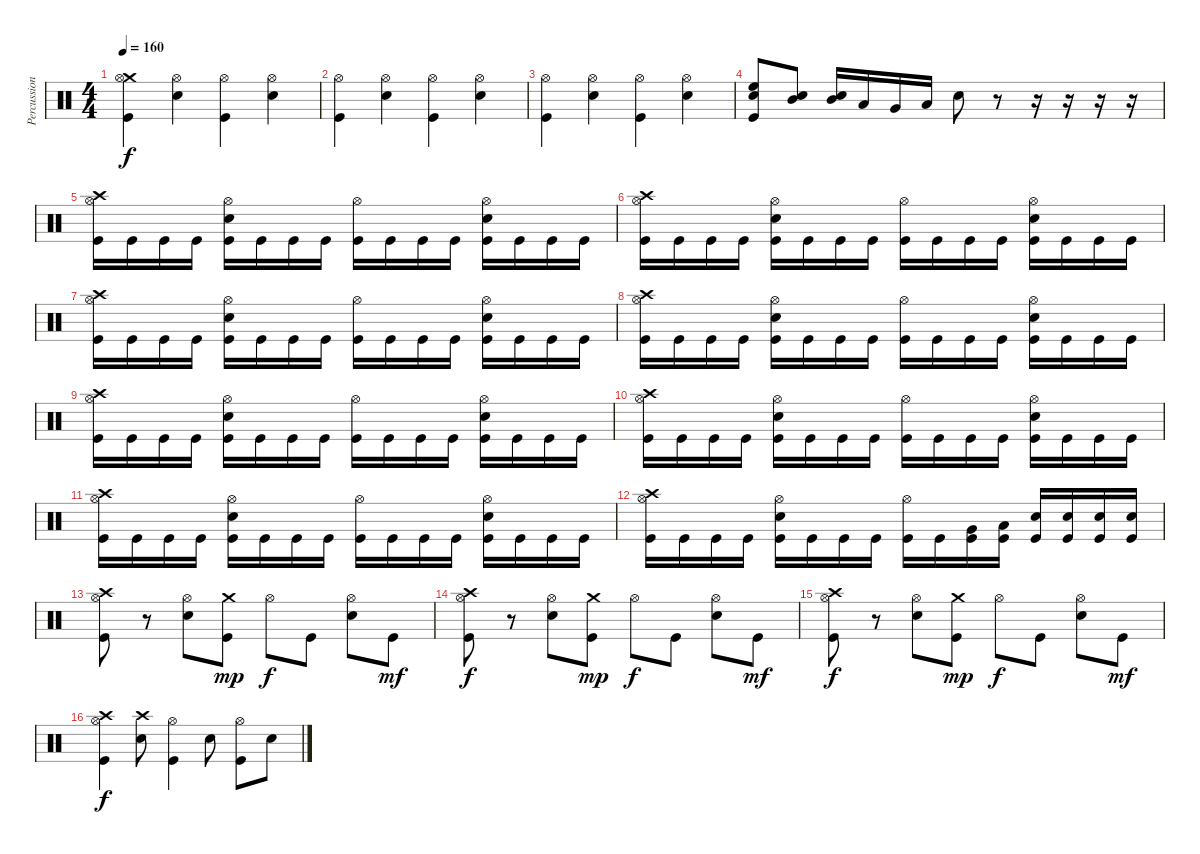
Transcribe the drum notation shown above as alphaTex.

\track ("Percussion" "Percussion") {instrument percussion}
\staff {score}
\articulation defaults
\ts (4 4)
\tempo 160
\clef neutral
\ks c
("Crash medium (hit)" "Hi-Hat (open)" "Kick (hit)").4{dy f} ("Hi-Hat (open)" "Electric Snare (hit)").4 ("Hi-Hat (open)" "Kick (hit)").4 ("Hi-Hat (open)" "Electric Snare (hit)").4 |
("Hi-Hat (open)" "Kick (hit)").4 ("Hi-Hat (open)" "Electric Snare (hit)").4 ("Hi-Hat (open)" "Kick (hit)").4 ("Hi-Hat (open)" "Electric Snare (hit)").4 |
("Hi-Hat (open)" "Kick (hit)").4 ("Hi-Hat (open)" "Electric Snare (hit)").4 ("Hi-Hat (open)" "Kick (hit)").4 ("Hi-Hat (open)" "Electric Snare (hit)").4 |
("Electric Snare (hit)" "High Floor Tom (hit)" "Kick (hit)").8 ("Electric Snare (hit)" "Mid Tom (hit)").8 ("Electric Snare (hit)" "Mid Tom (hit)").16 "Low Tom (hit)".16 "Very Low Tom (hit)".16 "Low Floor Tom (hit)".16 "Electric Snare (hit)".8 r.8 r.16 r.16 r.16 r.16 |
("Crash high (hit)" "Hi-Hat (open)" "Kick (hit)").16 "Kick (hit)".16 "Kick (hit)".16 "Kick (hit)".16 ("Electric Snare (hit)" "Hi-Hat (open)" "Kick (hit)").16 "Kick (hit)".16 "Kick (hit)".16 "Kick (hit)".16 ("Hi-Hat (open)" "Kick (hit)").16 "Kick (hit)".16 "Kick (hit)".16 "Kick (hit)".16 ("Electric Snare (hit)" "Hi-Hat (open)" "Kick (hit)").16 "Kick (hit)".16 "Kick (hit)".16 "Kick (hit)".16 |
("Crash high (hit)" "Hi-Hat (open)" "Kick (hit)").16 "Kick (hit)".16 "Kick (hit)".16 "Kick (hit)".16 ("Electric Snare (hit)" "Hi-Hat (open)" "Kick (hit)").16 "Kick (hit)".16 "Kick (hit)".16 "Kick (hit)".16 ("Hi-Hat (open)" "Kick (hit)").16 "Kick (hit)".16 "Kick (hit)".16 "Kick (hit)".16 ("Electric Snare (hit)" "Hi-Hat (open)" "Kick (hit)").16 "Kick (hit)".16 "Kick (hit)".16 "Kick (hit)".16 |
("Crash high (hit)" "Hi-Hat (open)" "Kick (hit)").16 "Kick (hit)".16 "Kick (hit)".16 "Kick (hit)".16 ("Electric Snare (hit)" "Hi-Hat (open)" "Kick (hit)").16 "Kick (hit)".16 "Kick (hit)".16 "Kick (hit)".16 ("Hi-Hat (open)" "Kick (hit)").16 "Kick (hit)".16 "Kick (hit)".16 "Kick (hit)".16 ("Electric Snare (hit)" "Hi-Hat (open)" "Kick (hit)").16 "Kick (hit)".16 "Kick (hit)".16 "Kick (hit)".16 |
("Crash high (hit)" "Hi-Hat (open)" "Kick (hit)").16 "Kick (hit)".16 "Kick (hit)".16 "Kick (hit)".16 ("Electric Snare (hit)" "Hi-Hat (open)" "Kick (hit)").16 "Kick (hit)".16 "Kick (hit)".16 "Kick (hit)".16 ("Hi-Hat (open)" "Kick (hit)").16 "Kick (hit)".16 "Kick (hit)".16 "Kick (hit)".16 ("Electric Snare (hit)" "Hi-Hat (open)" "Kick (hit)").16 "Kick (hit)".16 "Kick (hit)".16 "Kick (hit)".16 |
("Crash high (hit)" "Hi-Hat (open)" "Kick (hit)").16 "Kick (hit)".16 "Kick (hit)".16 "Kick (hit)".16 ("Electric Snare (hit)" "Hi-Hat (open)" "Kick (hit)").16 "Kick (hit)".16 "Kick (hit)".16 "Kick (hit)".16 ("Hi-Hat (open)" "Kick (hit)").16 "Kick (hit)".16 "Kick (hit)".16 "Kick (hit)".16 ("Electric Snare (hit)" "Hi-Hat (open)" "Kick (hit)").16 "Kick (hit)".16 "Kick (hit)".16 "Kick (hit)".16 |
("Crash high (hit)" "Hi-Hat (open)" "Kick (hit)").16 "Kick (hit)".16 "Kick (hit)".16 "Kick (hit)".16 ("Electric Snare (hit)" "Hi-Hat (open)" "Kick (hit)").16 "Kick (hit)".16 "Kick (hit)".16 "Kick (hit)".16 ("Hi-Hat (open)" "Kick (hit)").16 "Kick (hit)".16 "Kick (hit)".16 "Kick (hit)".16 ("Electric Snare (hit)" "Hi-Hat (open)" "Kick (hit)").16 "Kick (hit)".16 "Kick (hit)".16 "Kick (hit)".16 |
("Crash high (hit)" "Hi-Hat (open)" "Kick (hit)").16 "Kick (hit)".16 "Kick (hit)".16 "Kick (hit)".16 ("Electric Snare (hit)" "Hi-Hat (open)" "Kick (hit)").16 "Kick (hit)".16 "Kick (hit)".16 "Kick (hit)".16 ("Hi-Hat (open)" "Kick (hit)").16 "Kick (hit)".16 "Kick (hit)".16 "Kick (hit)".16 ("Electric Snare (hit)" "Hi-Hat (open)" "Kick (hit)").16 "Kick (hit)".16 "Kick (hit)".16 "Kick (hit)".16 |
("Crash high (hit)" "Hi-Hat (open)" "Kick (hit)").16 "Kick (hit)".16 "Kick (hit)".16 "Kick (hit)".16 ("Electric Snare (hit)" "Hi-Hat (open)" "Kick (hit)").16 "Kick (hit)".16 "Kick (hit)".16 "Kick (hit)".16 ("Hi-Hat (open)" "Kick (hit)").16 "Kick (hit)".16 ("Very Low Tom (hit)" "Kick (hit)").16 ("Low Floor Tom (hit)" "Kick (hit)").16 ("Electric Snare (hit)" "Kick (hit)").16 ("Electric Snare (hit)" "Kick (hit)").16 ("Electric Snare (hit)" "Kick (hit)").16 ("Electric Snare (hit)" "Kick (hit)").16 |
("Crash high (hit)" "Hi-Hat (open)" "Kick (hit)").8 r.8 ("Electric Snare (hit)" "Hi-Hat (open)").8 ("Crash medium (hit)" "Kick (hit)").8{dy mp} "Hi-Hat (open)".8{dy f} "Kick (hit)".8 ("Electric Snare (hit)" "Hi-Hat (open)").8 "Kick (hit)".8{dy mf} |
("Crash high (hit)" "Hi-Hat (open)" "Kick (hit)").8{dy f} r.8 ("Electric Snare (hit)" "Hi-Hat (open)").8 ("Crash medium (hit)" "Kick (hit)").8{dy mp} "Hi-Hat (open)".8{dy f} "Kick (hit)".8 ("Electric Snare (hit)" "Hi-Hat (open)").8 "Kick (hit)".8{dy mf} |
("Crash high (hit)" "Hi-Hat (open)" "Kick (hit)").8{dy f} r.8 ("Electric Snare (hit)" "Hi-Hat (open)").8 ("Crash medium (hit)" "Kick (hit)").8{dy mp} "Hi-Hat (open)".8{dy f} "Kick (hit)".8 ("Electric Snare (hit)" "Hi-Hat (open)").8 "Kick (hit)".8{dy mf} |
("Crash high (hit)" "Hi-Hat (open)" "Kick (hit)").4{dy f} ("Crash high (hit)" "Electric Snare (hit)").8 ("Hi-Hat (open)" "Kick (hit)").4 "Electric Snare (hit)".8 ("Hi-Hat (open)" "Kick (hit)").8 "Electric Snare (hit)".8
